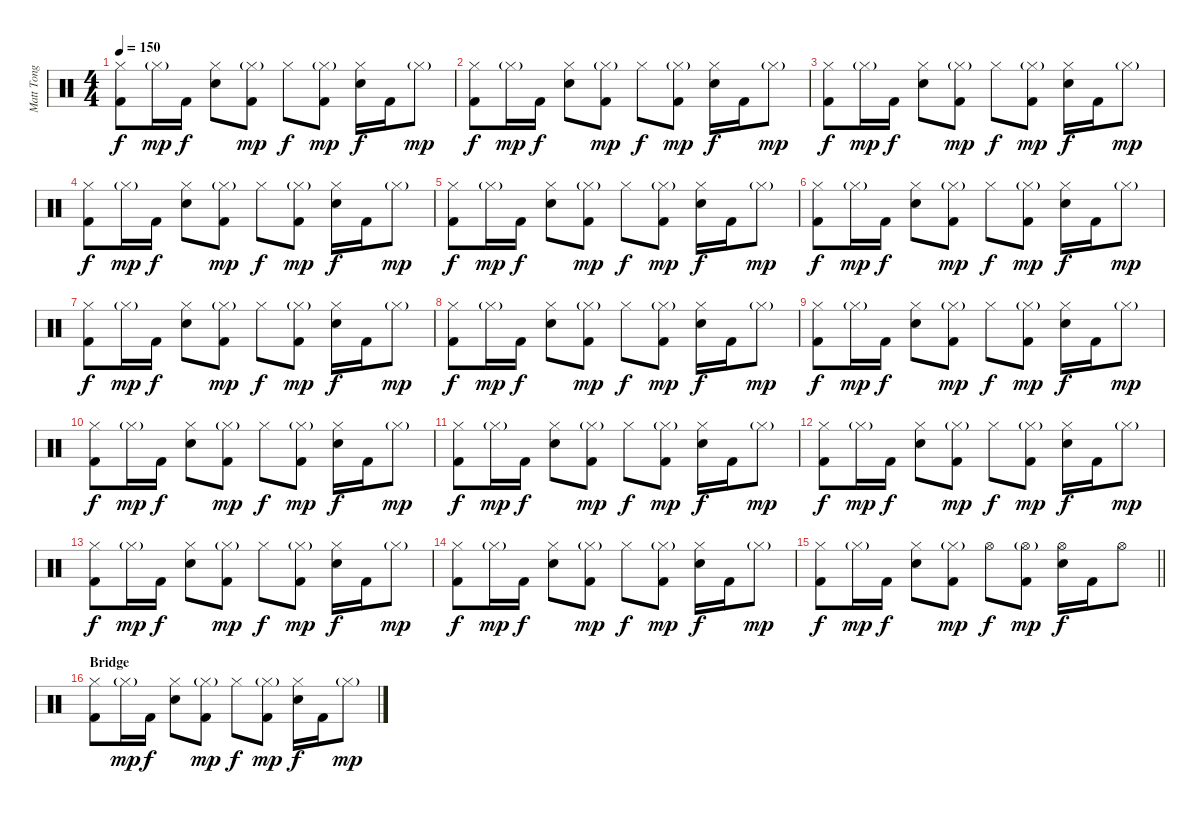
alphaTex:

\track ("Matt Tong" "Matt Tong") {instrument percussion}
\staff {score}
\articulation defaults
\ts (4 4)
\tempo 150
\clef neutral
\ks c
("Hi-Hat (closed)" "Kick (hit) 2").8{dy f} "Hi-Hat (closed)"{g}.16{dy mp} "Kick (hit) 2".16{dy f} ("Hi-Hat (closed)" "Electric Snare (hit)").8 ("Hi-Hat (closed)"{g} "Kick (hit) 2").8{dy mp} "Hi-Hat (closed)".8{dy f} ("Hi-Hat (closed)"{g} "Kick (hit) 2").8{dy mp} ("Hi-Hat (closed)" "Electric Snare (hit)").16{dy f} "Kick (hit) 2".16 "Hi-Hat (closed)"{g}.8{dy mp} |
("Hi-Hat (closed)" "Kick (hit) 2").8{dy f} "Hi-Hat (closed)"{g}.16{dy mp} "Kick (hit) 2".16{dy f} ("Hi-Hat (closed)" "Electric Snare (hit)").8 ("Hi-Hat (closed)"{g} "Kick (hit) 2").8{dy mp} "Hi-Hat (closed)".8{dy f} ("Hi-Hat (closed)"{g} "Kick (hit) 2").8{dy mp} ("Hi-Hat (closed)" "Electric Snare (hit)").16{dy f} "Kick (hit) 2".16 "Hi-Hat (closed)"{g}.8{dy mp} |
("Hi-Hat (closed)" "Kick (hit) 2").8{dy f} "Hi-Hat (closed)"{g}.16{dy mp} "Kick (hit) 2".16{dy f} ("Hi-Hat (closed)" "Electric Snare (hit)").8 ("Hi-Hat (closed)"{g} "Kick (hit) 2").8{dy mp} "Hi-Hat (closed)".8{dy f} ("Hi-Hat (closed)"{g} "Kick (hit) 2").8{dy mp} ("Hi-Hat (closed)" "Electric Snare (hit)").16{dy f} "Kick (hit) 2".16 "Hi-Hat (closed)"{g}.8{dy mp} |
("Hi-Hat (closed)" "Kick (hit) 2").8{dy f} "Hi-Hat (closed)"{g}.16{dy mp} "Kick (hit) 2".16{dy f} ("Hi-Hat (closed)" "Electric Snare (hit)").8 ("Hi-Hat (closed)"{g} "Kick (hit) 2").8{dy mp} "Hi-Hat (closed)".8{dy f} ("Hi-Hat (closed)"{g} "Kick (hit) 2").8{dy mp} ("Hi-Hat (closed)" "Electric Snare (hit)").16{dy f} "Kick (hit) 2".16 "Hi-Hat (closed)"{g}.8{dy mp} |
("Hi-Hat (closed)" "Kick (hit) 2").8{dy f} "Hi-Hat (closed)"{g}.16{dy mp} "Kick (hit) 2".16{dy f} ("Hi-Hat (closed)" "Electric Snare (hit)").8 ("Hi-Hat (closed)"{g} "Kick (hit) 2").8{dy mp} "Hi-Hat (closed)".8{dy f} ("Hi-Hat (closed)"{g} "Kick (hit) 2").8{dy mp} ("Hi-Hat (closed)" "Electric Snare (hit)").16{dy f} "Kick (hit) 2".16 "Hi-Hat (closed)"{g}.8{dy mp} |
("Hi-Hat (closed)" "Kick (hit) 2").8{dy f} "Hi-Hat (closed)"{g}.16{dy mp} "Kick (hit) 2".16{dy f} ("Hi-Hat (closed)" "Electric Snare (hit)").8 ("Hi-Hat (closed)"{g} "Kick (hit) 2").8{dy mp} "Hi-Hat (closed)".8{dy f} ("Hi-Hat (closed)"{g} "Kick (hit) 2").8{dy mp} ("Hi-Hat (closed)" "Electric Snare (hit)").16{dy f} "Kick (hit) 2".16 "Hi-Hat (closed)"{g}.8{dy mp} |
("Hi-Hat (closed)" "Kick (hit) 2").8{dy f} "Hi-Hat (closed)"{g}.16{dy mp} "Kick (hit) 2".16{dy f} ("Hi-Hat (closed)" "Electric Snare (hit)").8 ("Hi-Hat (closed)"{g} "Kick (hit) 2").8{dy mp} "Hi-Hat (closed)".8{dy f} ("Hi-Hat (closed)"{g} "Kick (hit) 2").8{dy mp} ("Hi-Hat (closed)" "Electric Snare (hit)").16{dy f} "Kick (hit) 2".16 "Hi-Hat (closed)"{g}.8{dy mp} |
("Hi-Hat (closed)" "Kick (hit) 2").8{dy f} "Hi-Hat (closed)"{g}.16{dy mp} "Kick (hit) 2".16{dy f} ("Hi-Hat (closed)" "Electric Snare (hit)").8 ("Hi-Hat (closed)"{g} "Kick (hit) 2").8{dy mp} "Hi-Hat (closed)".8{dy f} ("Hi-Hat (closed)"{g} "Kick (hit) 2").8{dy mp} ("Hi-Hat (closed)" "Electric Snare (hit)").16{dy f} "Kick (hit) 2".16 "Hi-Hat (closed)"{g}.8{dy mp} |
("Hi-Hat (closed)" "Kick (hit) 2").8{dy f} "Hi-Hat (closed)"{g}.16{dy mp} "Kick (hit) 2".16{dy f} ("Hi-Hat (closed)" "Electric Snare (hit)").8 ("Hi-Hat (closed)"{g} "Kick (hit) 2").8{dy mp} "Hi-Hat (closed)".8{dy f} ("Hi-Hat (closed)"{g} "Kick (hit) 2").8{dy mp} ("Hi-Hat (closed)" "Electric Snare (hit)").16{dy f} "Kick (hit) 2".16 "Hi-Hat (closed)"{g}.8{dy mp} |
("Hi-Hat (closed)" "Kick (hit) 2").8{dy f} "Hi-Hat (closed)"{g}.16{dy mp} "Kick (hit) 2".16{dy f} ("Hi-Hat (closed)" "Electric Snare (hit)").8 ("Hi-Hat (closed)"{g} "Kick (hit) 2").8{dy mp} "Hi-Hat (closed)".8{dy f} ("Hi-Hat (closed)"{g} "Kick (hit) 2").8{dy mp} ("Hi-Hat (closed)" "Electric Snare (hit)").16{dy f} "Kick (hit) 2".16 "Hi-Hat (closed)"{g}.8{dy mp} |
("Hi-Hat (closed)" "Kick (hit) 2").8{dy f} "Hi-Hat (closed)"{g}.16{dy mp} "Kick (hit) 2".16{dy f} ("Hi-Hat (closed)" "Electric Snare (hit)").8 ("Hi-Hat (closed)"{g} "Kick (hit) 2").8{dy mp} "Hi-Hat (closed)".8{dy f} ("Hi-Hat (closed)"{g} "Kick (hit) 2").8{dy mp} ("Hi-Hat (closed)" "Electric Snare (hit)").16{dy f} "Kick (hit) 2".16 "Hi-Hat (closed)"{g}.8{dy mp} |
("Hi-Hat (closed)" "Kick (hit) 2").8{dy f} "Hi-Hat (closed)"{g}.16{dy mp} "Kick (hit) 2".16{dy f} ("Hi-Hat (closed)" "Electric Snare (hit)").8 ("Hi-Hat (closed)"{g} "Kick (hit) 2").8{dy mp} "Hi-Hat (closed)".8{dy f} ("Hi-Hat (closed)"{g} "Kick (hit) 2").8{dy mp} ("Hi-Hat (closed)" "Electric Snare (hit)").16{dy f} "Kick (hit) 2".16 "Hi-Hat (closed)"{g}.8{dy mp} |
("Hi-Hat (closed)" "Kick (hit) 2").8{dy f} "Hi-Hat (closed)"{g}.16{dy mp} "Kick (hit) 2".16{dy f} ("Hi-Hat (closed)" "Electric Snare (hit)").8 ("Hi-Hat (closed)"{g} "Kick (hit) 2").8{dy mp} "Hi-Hat (closed)".8{dy f} ("Hi-Hat (closed)"{g} "Kick (hit) 2").8{dy mp} ("Hi-Hat (closed)" "Electric Snare (hit)").16{dy f} "Kick (hit) 2".16 "Hi-Hat (closed)"{g}.8{dy mp} |
("Hi-Hat (closed)" "Kick (hit) 2").8{dy f} "Hi-Hat (closed)"{g}.16{dy mp} "Kick (hit) 2".16{dy f} ("Hi-Hat (closed)" "Electric Snare (hit)").8 ("Hi-Hat (closed)"{g} "Kick (hit) 2").8{dy mp} "Hi-Hat (closed)".8{dy f} ("Hi-Hat (closed)"{g} "Kick (hit) 2").8{dy mp} ("Hi-Hat (closed)" "Electric Snare (hit)").16{dy f} "Kick (hit) 2".16 "Hi-Hat (closed)"{g}.8{dy mp} |
\barLineRight lightlight
("Hi-Hat (closed)" "Kick (hit) 2").8{dy f} "Hi-Hat (closed)"{g}.16{dy mp} "Kick (hit) 2".16{dy f} ("Hi-Hat (closed)" "Electric Snare (hit)").8 ("Hi-Hat (closed)"{g} "Kick (hit) 2").8{dy mp} "Hi-Hat (open)".8{dy f} ("Hi-Hat (open)"{g} "Kick (hit) 2").8{dy mp} ("Hi-Hat (open)" "Electric Snare (hit)").16{dy f} "Kick (hit) 2".16 "Hi-Hat (open)".8 |
\section ("" "Bridge")
("Hi-Hat (closed)" "Kick (hit) 2").8 "Hi-Hat (closed)"{g}.16{dy mp} "Kick (hit) 2".16{dy f} ("Hi-Hat (closed)" "Electric Snare (hit)").8 ("Hi-Hat (closed)"{g} "Kick (hit) 2").8{dy mp} "Hi-Hat (closed)".8{dy f} ("Hi-Hat (closed)"{g} "Kick (hit) 2").8{dy mp} ("Hi-Hat (closed)" "Electric Snare (hit)").16{dy f} "Kick (hit) 2".16 "Hi-Hat (closed)"{g}.8{dy mp}
